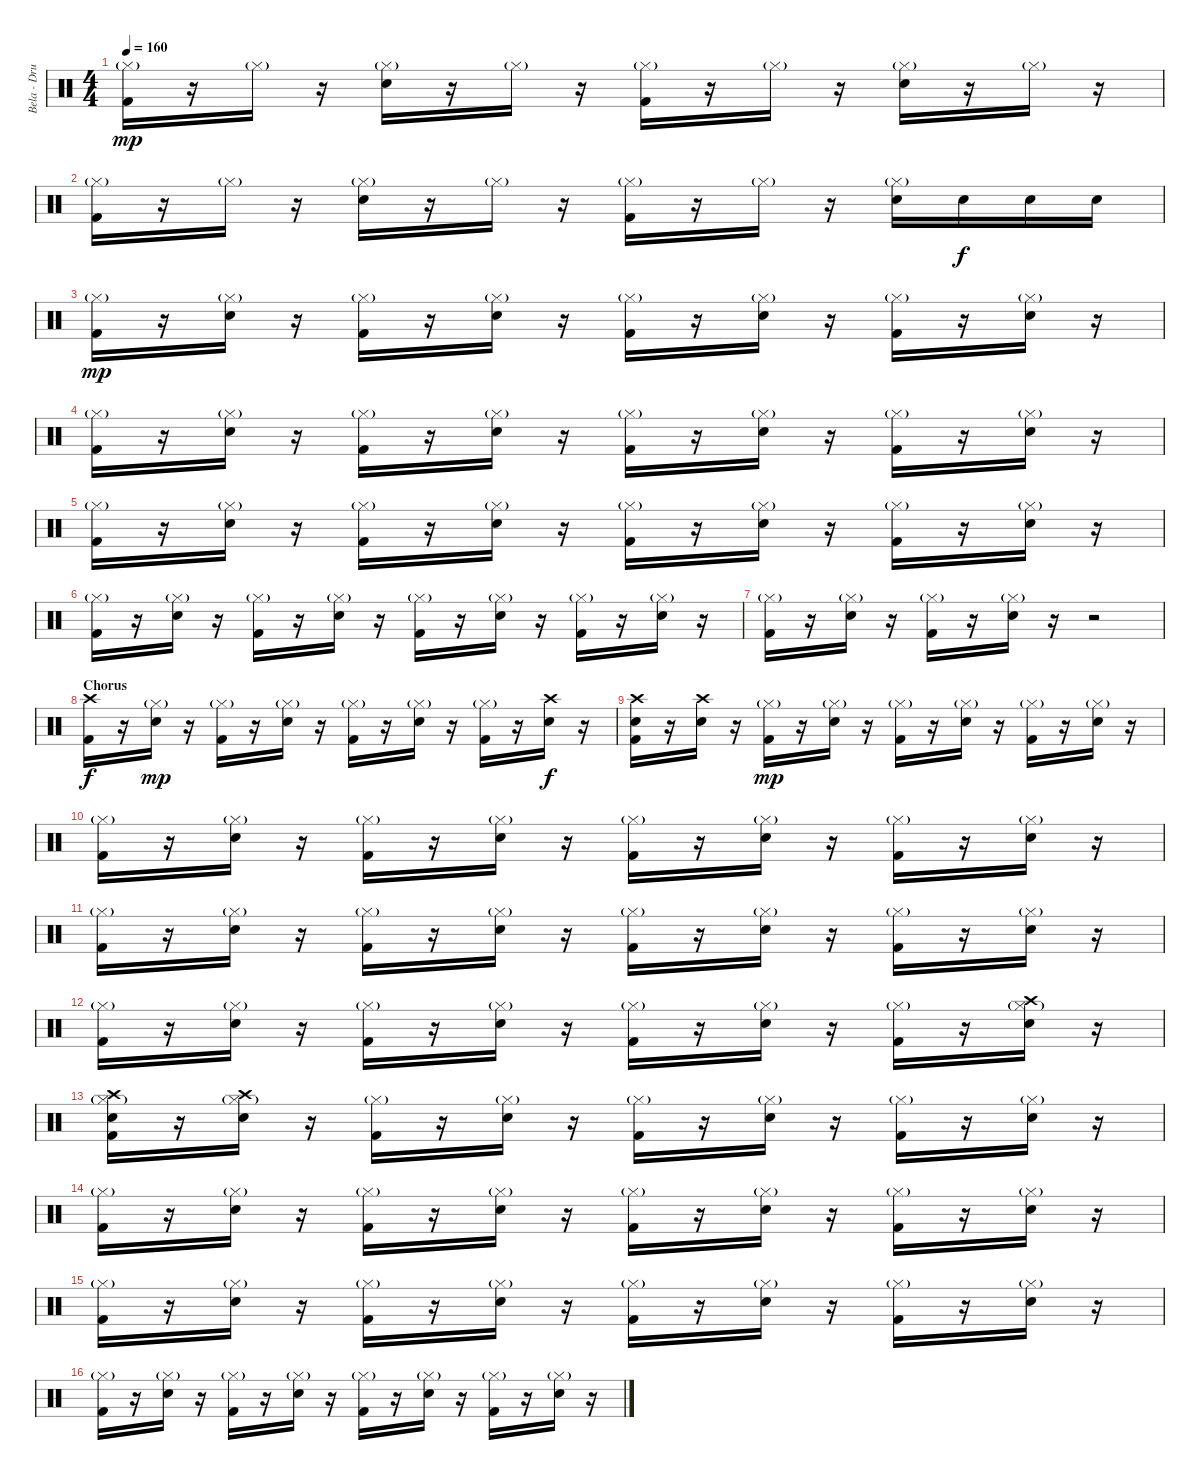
\track ("Bela - Drums" "Bela - Dru") {instrument percussion}
\staff {score}
\articulation defaults
\ts (4 4)
\tempo 160
\clef neutral
\ks c
("Hi-Hat (closed)"{g} "Kick (hit) 2").16{dy mp} r.16 "Hi-Hat (closed)"{g}.16 r.16 ("Hi-Hat (closed)"{g} "Electric Snare (hit)").16 r.16 "Hi-Hat (closed)"{g}.16 r.16 ("Hi-Hat (closed)"{g} "Kick (hit) 2").16 r.16 "Hi-Hat (closed)"{g}.16 r.16 ("Hi-Hat (closed)"{g} "Electric Snare (hit)").16 r.16 "Hi-Hat (closed)"{g}.16 r.16 |
("Hi-Hat (closed)"{g} "Kick (hit) 2").16 r.16 "Hi-Hat (closed)"{g}.16 r.16 ("Hi-Hat (closed)"{g} "Electric Snare (hit)").16 r.16 "Hi-Hat (closed)"{g}.16 r.16 ("Hi-Hat (closed)"{g} "Kick (hit) 2").16 r.16 "Hi-Hat (closed)"{g}.16 r.16 ("Hi-Hat (closed)"{g} "Electric Snare (hit)").16 "Electric Snare (hit)".16{dy f} "Electric Snare (hit)".16 "Electric Snare (hit)".16 |
("Hi-Hat (closed)"{g} "Kick (hit) 2").16{dy mp} r.16 ("Hi-Hat (closed)"{g} "Electric Snare (hit)").16 r.16 ("Hi-Hat (closed)"{g} "Kick (hit) 2").16 r.16 ("Hi-Hat (closed)"{g} "Electric Snare (hit)").16 r.16 ("Hi-Hat (closed)"{g} "Kick (hit) 2").16 r.16 ("Hi-Hat (closed)"{g} "Electric Snare (hit)").16 r.16 ("Hi-Hat (closed)"{g} "Kick (hit) 2").16 r.16 ("Hi-Hat (closed)"{g} "Electric Snare (hit)").16 r.16 |
("Hi-Hat (closed)"{g} "Kick (hit) 2").16 r.16 ("Hi-Hat (closed)"{g} "Electric Snare (hit)").16 r.16 ("Hi-Hat (closed)"{g} "Kick (hit) 2").16 r.16 ("Hi-Hat (closed)"{g} "Electric Snare (hit)").16 r.16 ("Hi-Hat (closed)"{g} "Kick (hit) 2").16 r.16 ("Hi-Hat (closed)"{g} "Electric Snare (hit)").16 r.16 ("Hi-Hat (closed)"{g} "Kick (hit) 2").16 r.16 ("Hi-Hat (closed)"{g} "Electric Snare (hit)").16 r.16 |
("Hi-Hat (closed)"{g} "Kick (hit) 2").16 r.16 ("Hi-Hat (closed)"{g} "Electric Snare (hit)").16 r.16 ("Hi-Hat (closed)"{g} "Kick (hit) 2").16 r.16 ("Hi-Hat (closed)"{g} "Electric Snare (hit)").16 r.16 ("Hi-Hat (closed)"{g} "Kick (hit) 2").16 r.16 ("Hi-Hat (closed)"{g} "Electric Snare (hit)").16 r.16 ("Hi-Hat (closed)"{g} "Kick (hit) 2").16 r.16 ("Hi-Hat (closed)"{g} "Electric Snare (hit)").16 r.16 |
("Hi-Hat (closed)"{g} "Kick (hit) 2").16 r.16 ("Hi-Hat (closed)"{g} "Electric Snare (hit)").16 r.16 ("Hi-Hat (closed)"{g} "Kick (hit) 2").16 r.16 ("Hi-Hat (closed)"{g} "Electric Snare (hit)").16 r.16 ("Hi-Hat (closed)"{g} "Kick (hit) 2").16 r.16 ("Hi-Hat (closed)"{g} "Electric Snare (hit)").16 r.16 ("Hi-Hat (closed)"{g} "Kick (hit) 2").16 r.16 ("Hi-Hat (closed)"{g} "Electric Snare (hit)").16 r.16 |
("Hi-Hat (closed)"{g} "Kick (hit) 2").16 r.16 ("Hi-Hat (closed)"{g} "Electric Snare (hit)").16 r.16 ("Hi-Hat (closed)"{g} "Kick (hit) 2").16 r.16 ("Hi-Hat (closed)"{g} "Electric Snare (hit)").16 r.16 r.2 |
\section ("" "Chorus")
("Crash high (hit)" "Kick (hit) 2").16{dy f} r.16 ("Hi-Hat (closed)"{g} "Electric Snare (hit)").16{dy mp} r.16 ("Hi-Hat (closed)"{g} "Kick (hit) 2").16 r.16 ("Hi-Hat (closed)"{g} "Electric Snare (hit)").16 r.16 ("Hi-Hat (closed)"{g} "Kick (hit) 2").16 r.16 ("Hi-Hat (closed)"{g} "Electric Snare (hit)").16 r.16 ("Hi-Hat (closed)"{g} "Kick (hit) 2").16 r.16 ("Crash high (hit)" "Electric Snare (hit)").16{dy f} r.16 |
("Crash high (hit)" "Electric Snare (hit)" "Kick (hit) 2").16 r.16 ("Crash high (hit)" "Electric Snare (hit)").16 r.16 ("Hi-Hat (closed)"{g} "Kick (hit) 2").16{dy mp} r.16 ("Hi-Hat (closed)"{g} "Electric Snare (hit)").16 r.16 ("Hi-Hat (closed)"{g} "Kick (hit) 2").16 r.16 ("Hi-Hat (closed)"{g} "Electric Snare (hit)").16 r.16 ("Hi-Hat (closed)"{g} "Kick (hit) 2").16 r.16 ("Hi-Hat (closed)"{g} "Electric Snare (hit)").16 r.16 |
("Hi-Hat (closed)"{g} "Kick (hit) 2").16 r.16 ("Hi-Hat (closed)"{g} "Electric Snare (hit)").16 r.16 ("Hi-Hat (closed)"{g} "Kick (hit) 2").16 r.16 ("Hi-Hat (closed)"{g} "Electric Snare (hit)").16 r.16 ("Hi-Hat (closed)"{g} "Kick (hit) 2").16 r.16 ("Hi-Hat (closed)"{g} "Electric Snare (hit)").16 r.16 ("Hi-Hat (closed)"{g} "Kick (hit) 2").16 r.16 ("Hi-Hat (closed)"{g} "Electric Snare (hit)").16 r.16 |
("Hi-Hat (closed)"{g} "Kick (hit) 2").16 r.16 ("Hi-Hat (closed)"{g} "Electric Snare (hit)").16 r.16 ("Hi-Hat (closed)"{g} "Kick (hit) 2").16 r.16 ("Hi-Hat (closed)"{g} "Electric Snare (hit)").16 r.16 ("Hi-Hat (closed)"{g} "Kick (hit) 2").16 r.16 ("Hi-Hat (closed)"{g} "Electric Snare (hit)").16 r.16 ("Hi-Hat (closed)"{g} "Kick (hit) 2").16 r.16 ("Hi-Hat (closed)"{g} "Electric Snare (hit)").16 r.16 |
("Hi-Hat (closed)"{g} "Kick (hit) 2").16 r.16 ("Hi-Hat (closed)"{g} "Electric Snare (hit)").16 r.16 ("Hi-Hat (closed)"{g} "Kick (hit) 2").16 r.16 ("Hi-Hat (closed)"{g} "Electric Snare (hit)").16 r.16 ("Hi-Hat (closed)"{g} "Kick (hit) 2").16 r.16 ("Hi-Hat (closed)"{g} "Electric Snare (hit)").16 r.16 ("Hi-Hat (closed)"{g} "Kick (hit) 2").16 r.16 ("Hi-Hat (closed)"{g} "Crash high (hit)" "Electric Snare (hit)").16 r.16 |
("Hi-Hat (closed)"{g} "Crash high (hit)" "Electric Snare (hit)" "Kick (hit) 2").16 r.16 ("Hi-Hat (closed)"{g} "Crash high (hit)" "Electric Snare (hit)").16 r.16 ("Hi-Hat (closed)"{g} "Kick (hit) 2").16 r.16 ("Hi-Hat (closed)"{g} "Electric Snare (hit)").16 r.16 ("Hi-Hat (closed)"{g} "Kick (hit) 2").16 r.16 ("Hi-Hat (closed)"{g} "Electric Snare (hit)").16 r.16 ("Hi-Hat (closed)"{g} "Kick (hit) 2").16 r.16 ("Hi-Hat (closed)"{g} "Electric Snare (hit)").16 r.16 |
("Hi-Hat (closed)"{g} "Kick (hit) 2").16 r.16 ("Hi-Hat (closed)"{g} "Electric Snare (hit)").16 r.16 ("Hi-Hat (closed)"{g} "Kick (hit) 2").16 r.16 ("Hi-Hat (closed)"{g} "Electric Snare (hit)").16 r.16 ("Hi-Hat (closed)"{g} "Kick (hit) 2").16 r.16 ("Hi-Hat (closed)"{g} "Electric Snare (hit)").16 r.16 ("Hi-Hat (closed)"{g} "Kick (hit) 2").16 r.16 ("Hi-Hat (closed)"{g} "Electric Snare (hit)").16 r.16 |
("Hi-Hat (closed)"{g} "Kick (hit) 2").16 r.16 ("Hi-Hat (closed)"{g} "Electric Snare (hit)").16 r.16 ("Hi-Hat (closed)"{g} "Kick (hit) 2").16 r.16 ("Hi-Hat (closed)"{g} "Electric Snare (hit)").16 r.16 ("Hi-Hat (closed)"{g} "Kick (hit) 2").16 r.16 ("Hi-Hat (closed)"{g} "Electric Snare (hit)").16 r.16 ("Hi-Hat (closed)"{g} "Kick (hit) 2").16 r.16 ("Hi-Hat (closed)"{g} "Electric Snare (hit)").16 r.16 |
("Hi-Hat (closed)"{g} "Kick (hit) 2").16 r.16 ("Hi-Hat (closed)"{g} "Electric Snare (hit)").16 r.16 ("Hi-Hat (closed)"{g} "Kick (hit) 2").16 r.16 ("Hi-Hat (closed)"{g} "Electric Snare (hit)").16 r.16 ("Hi-Hat (closed)"{g} "Kick (hit) 2").16 r.16 ("Hi-Hat (closed)"{g} "Electric Snare (hit)").16 r.16 ("Hi-Hat (closed)"{g} "Kick (hit) 2").16 r.16 ("Hi-Hat (closed)"{g} "Electric Snare (hit)").16 r.16
